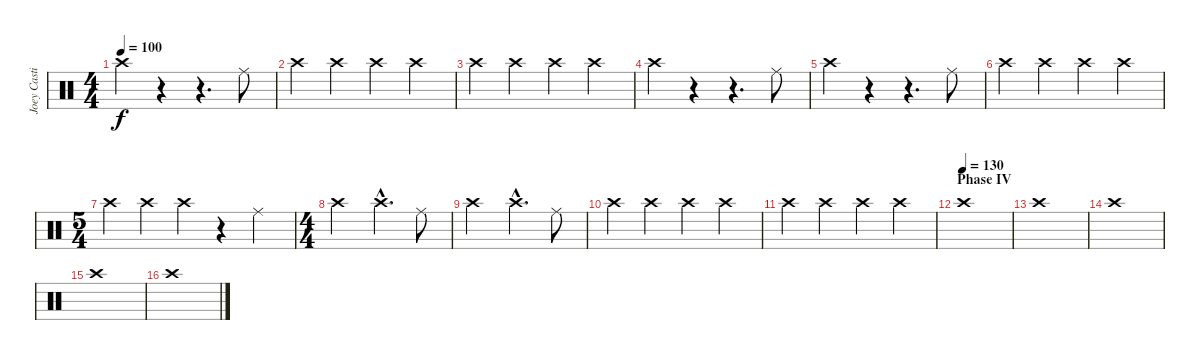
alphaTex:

\track ("Joey Castillo" "Joey Casti") {instrument percussion}
\staff {score}
\articulation defaults
\ts (4 4)
\tempo 100
\clef neutral
\ks c "Crash high (hit)".4{dy f}
r.4 r.4{d} "Ride (middle)".8 |
"Crash high (hit)".4 "Crash high (hit)".4 "Crash high (hit)".4 "Crash high (hit)".4 |
"Crash high (hit)".4 "Crash high (hit)".4 "Crash high (hit)".4 "Crash high (hit)".4 |
"Crash high (hit)".4 r.4 r.4{d} "Ride (middle)".8 |
"Crash high (hit)".4 r.4 r.4{d} "Ride (middle)".8 |
"Crash high (hit)".4 "Crash high (hit)".4 "Crash high (hit)".4 "Crash high (hit)".4 |
\ts (5 4)
"Crash high (hit)".4 "Crash high (hit)".4 "Crash high (hit)".4 r.4 "Ride (middle)".4 |
\ts (4 4)
"Crash high (hit)".2 "Crash high (hit)"{hac}.4{d} "Ride (middle)".8 |
"Crash high (hit)".2 "Crash high (hit)"{hac}.4{d} "Ride (middle)".8 |
"Crash high (hit)".4 "Crash high (hit)".4 "Crash high (hit)".4 "Crash high (hit)".4 |
"Crash high (hit)".4 "Crash high (hit)".4 "Crash high (hit)".4 "Crash high (hit)".4 |
\section ("" "Phase IV")
\tempo (130)
"Crash high (hit)".1 |
"Crash high (hit)".1 |
"Crash high (hit)".1 |
"Crash high (hit)".1 |
"Crash high (hit)".1
